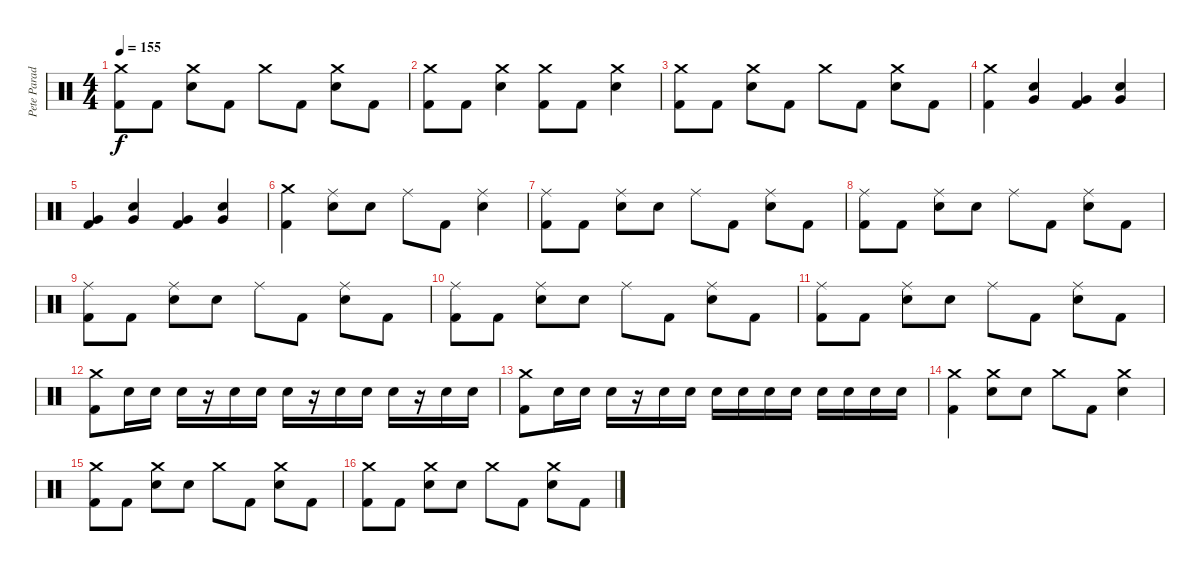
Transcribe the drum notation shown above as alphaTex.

\track ("Pete Parada - Drums" "Pete Parad") {instrument percussion}
\staff {score}
\articulation defaults
\ts (4 4)
\tempo 155
\clef neutral
\ks c
("Crash medium (hit)" "Kick (hit) 2").8{dy f} "Kick (hit) 2".8 ("Crash medium (hit)" "Electric Snare (hit)").8 "Kick (hit) 2".8 "Crash medium (hit)".8 "Kick (hit) 2".8 ("Crash medium (hit)" "Electric Snare (hit)").8 "Kick (hit) 2".8 |
("Crash medium (hit)" "Kick (hit) 2").8 "Kick (hit) 2".8 ("Crash medium (hit)" "Electric Snare (hit)").4 ("Crash medium (hit)" "Kick (hit) 2").8 "Kick (hit) 2".8 ("Crash medium (hit)" "Electric Snare (hit)").4 |
("Crash medium (hit)" "Kick (hit) 2").8 "Kick (hit) 2".8 ("Crash medium (hit)" "Electric Snare (hit)").8 "Kick (hit) 2".8 "Crash medium (hit)".8 "Kick (hit) 2".8 ("Crash medium (hit)" "Electric Snare (hit)").8 "Kick (hit) 2".8 |
("Crash medium (hit)" "Kick (hit) 2").4 ("Very Low Tom (hit)" "Electric Snare (hit)").4 ("Very Low Tom (hit)" "Kick (hit) 2").4 ("Very Low Tom (hit)" "Electric Snare (hit)").4 |
("Very Low Tom (hit)" "Kick (hit) 2").4 ("Very Low Tom (hit)" "Electric Snare (hit)").4 ("Very Low Tom (hit)" "Kick (hit) 2").4 ("Very Low Tom (hit)" "Electric Snare (hit)").4 |
("Crash medium (hit)" "Kick (hit) 2").4 ("Ride (middle)" "Electric Snare (hit)").8 "Electric Snare (hit)".8 "Ride (middle)".8 "Kick (hit) 2".8 ("Ride (middle)" "Electric Snare (hit)").4 |
("Ride (middle)" "Kick (hit) 2").8 "Kick (hit) 2".8 ("Ride (middle)" "Electric Snare (hit)").8 "Electric Snare (hit)".8 "Ride (middle)".8 "Kick (hit) 2".8 ("Ride (middle)" "Electric Snare (hit)").8 "Kick (hit) 2".8 |
("Ride (middle)" "Kick (hit) 2").8 "Kick (hit) 2".8 ("Ride (middle)" "Electric Snare (hit)").8 "Electric Snare (hit)".8 "Ride (middle)".8 "Kick (hit) 2".8 ("Ride (middle)" "Electric Snare (hit)").8 "Kick (hit) 2".8 |
("Ride (middle)" "Kick (hit) 2").8 "Kick (hit) 2".8 ("Ride (middle)" "Electric Snare (hit)").8 "Electric Snare (hit)".8 "Ride (middle)".8 "Kick (hit) 2".8 ("Ride (middle)" "Electric Snare (hit)").8 "Kick (hit) 2".8 |
("Ride (middle)" "Kick (hit) 2").8 "Kick (hit) 2".8 ("Ride (middle)" "Electric Snare (hit)").8 "Electric Snare (hit)".8 "Ride (middle)".8 "Kick (hit) 2".8 ("Ride (middle)" "Electric Snare (hit)").8 "Kick (hit) 2".8 |
("Ride (middle)" "Kick (hit) 2").8 "Kick (hit) 2".8 ("Ride (middle)" "Electric Snare (hit)").8 "Electric Snare (hit)".8 "Ride (middle)".8 "Kick (hit) 2".8 ("Ride (middle)" "Electric Snare (hit)").8 "Kick (hit) 2".8 |
("Crash medium (hit)" "Kick (hit) 2").8 "Electric Snare (hit)".16 "Electric Snare (hit)".16 "Electric Snare (hit)".16 r.16 "Electric Snare (hit)".16 "Electric Snare (hit)".16 "Electric Snare (hit)".16 r.16 "Electric Snare (hit)".16 "Electric Snare (hit)".16 "Electric Snare (hit)".16 r.16 "Electric Snare (hit)".16 "Electric Snare (hit)".16 |
("Crash medium (hit)" "Kick (hit) 2").8 "Electric Snare (hit)".16 "Electric Snare (hit)".16 "Electric Snare (hit)".16 r.16 "Electric Snare (hit)".16 "Electric Snare (hit)".16 "Electric Snare (hit)".16 "Electric Snare (hit)".16 "Electric Snare (hit)".16 "Electric Snare (hit)".16 "Electric Snare (hit)".16 "Electric Snare (hit)".16 "Electric Snare (hit)".16 "Electric Snare (hit)".16 |
("Crash medium (hit)" "Kick (hit) 2").4 ("Crash medium (hit)" "Electric Snare (hit)").8 "Electric Snare (hit)".8 "Crash medium (hit)".8 "Kick (hit) 2".8 ("Crash medium (hit)" "Electric Snare (hit)").4 |
("Crash medium (hit)" "Kick (hit) 2").8 "Kick (hit) 2".8 ("Crash medium (hit)" "Electric Snare (hit)").8 "Electric Snare (hit)".8 "Crash medium (hit)".8 "Kick (hit) 2".8 ("Crash medium (hit)" "Electric Snare (hit)").8 "Kick (hit) 2".8 |
("Crash medium (hit)" "Kick (hit) 2").8 "Kick (hit) 2".8 ("Crash medium (hit)" "Electric Snare (hit)").8 "Electric Snare (hit)".8 "Crash medium (hit)".8 "Kick (hit) 2".8 ("Crash medium (hit)" "Electric Snare (hit)").8 "Kick (hit) 2".8
